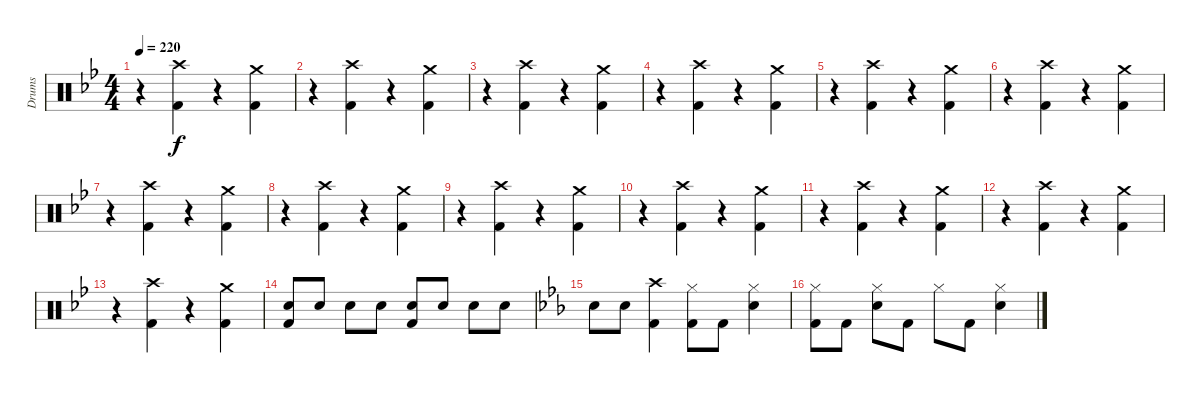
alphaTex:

\track ("Drums" "Drums") {instrument percussion}
\staff {score}
\articulation defaults
\ts (4 4)
\tempo 220
\clef neutral
\ks gminor
r.4{dy f} ("Kick (hit) 2" "Crash high (hit)").4 r.4 ("Kick (hit) 2" "Crash medium (hit)").4 |
r.4 ("Kick (hit) 2" "Crash high (hit)").4 r.4 ("Kick (hit) 2" "Crash medium (hit)").4 |
r.4 ("Kick (hit) 2" "Crash high (hit)").4 r.4 ("Kick (hit) 2" "Crash medium (hit)").4 |
r.4 ("Kick (hit) 2" "Crash high (hit)").4 r.4 ("Kick (hit) 2" "Crash medium (hit)").4 |
r.4 ("Kick (hit) 2" "Crash high (hit)").4 r.4 ("Kick (hit) 2" "Crash medium (hit)").4 |
r.4 ("Kick (hit) 2" "Crash high (hit)").4 r.4 ("Kick (hit) 2" "Crash medium (hit)").4 |
r.4 ("Kick (hit) 2" "Crash high (hit)").4 r.4 ("Kick (hit) 2" "Crash medium (hit)").4 |
r.4 ("Kick (hit) 2" "Crash high (hit)").4 r.4 ("Kick (hit) 2" "Crash medium (hit)").4 |
r.4 ("Kick (hit) 2" "Crash high (hit)").4 r.4 ("Kick (hit) 2" "Crash medium (hit)").4 |
r.4 ("Kick (hit) 2" "Crash high (hit)").4 r.4 ("Kick (hit) 2" "Crash medium (hit)").4 |
r.4 ("Kick (hit) 2" "Crash high (hit)").4 r.4 ("Kick (hit) 2" "Crash medium (hit)").4 |
r.4 ("Kick (hit) 2" "Crash high (hit)").4 r.4 ("Kick (hit) 2" "Crash medium (hit)").4 |
r.4 ("Kick (hit) 2" "Crash high (hit)").4 r.4 ("Kick (hit) 2" "Crash medium (hit)").4 |
("Kick (hit) 2" "Snare (hit) 2").8 "Snare (hit) 2".8 "Snare (hit) 2".8 "Snare (hit) 2".8 ("Kick (hit) 2" "Snare (hit) 2").8 "Snare (hit) 2".8 "Snare (hit) 2".8 "Snare (hit) 2".8 |
\ks cminor "Snare (hit) 2".8 "Snare (hit) 2".8
("Kick (hit) 2" "Crash high (hit)").4 ("Kick (hit) 2" "Hi-Hat (closed)").8 "Kick (hit) 2".8 ("Snare (hit) 2" "Hi-Hat (closed)").4 |
("Kick (hit) 2" "Hi-Hat (closed)").8 "Kick (hit) 2".8 ("Snare (hit) 2" "Hi-Hat (closed)").8 "Kick (hit) 2".8 "Hi-Hat (closed)".8 "Kick (hit) 2".8 ("Snare (hit) 2" "Hi-Hat (closed)").4
